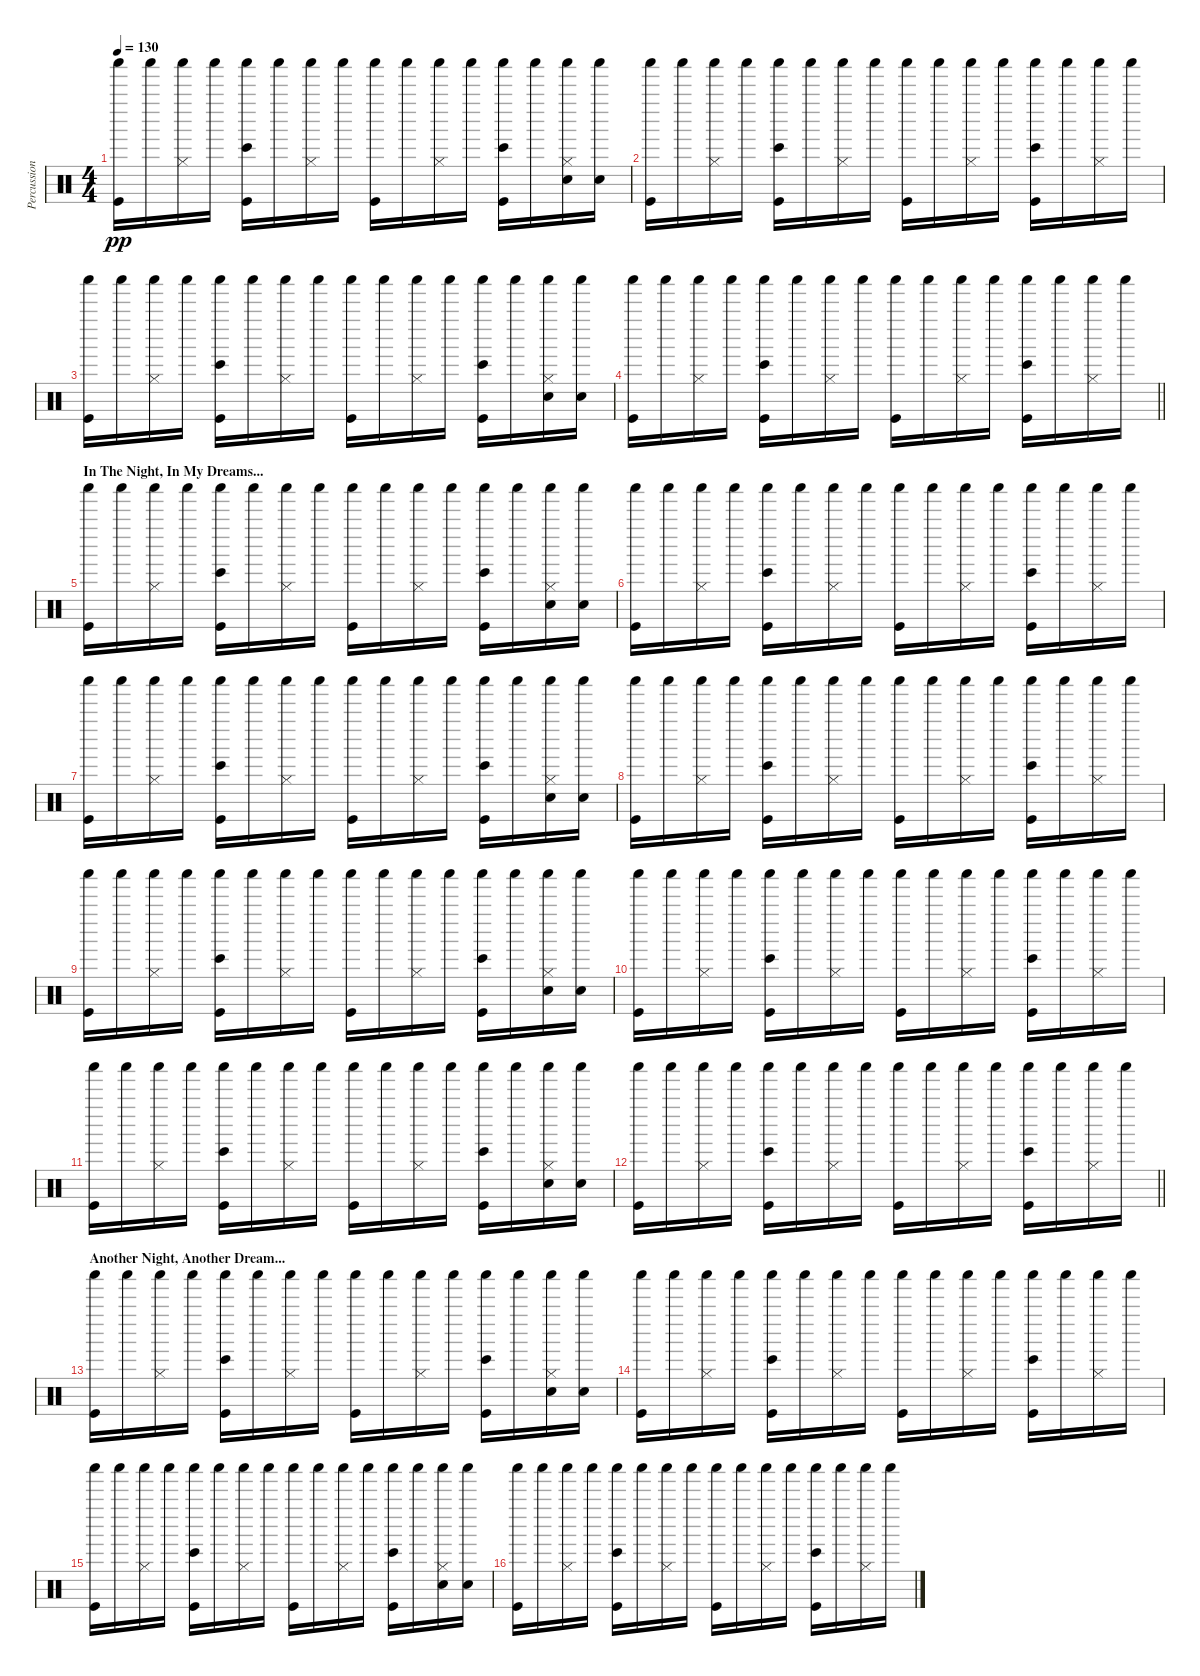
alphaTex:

\track ("Percussion" "Percussion") {instrument percussion}
\staff {score}
\articulation defaults
\ts (4 4)
\tempo 130
\clef neutral
\ks c
("Kick (hit)" "Shaker (hit)").16{dy pp} "Shaker (hit)".16 ("Hi-Hat (closed)" "Shaker (hit)").16 "Shaker (hit)".16 ("Kick (hit)" "Bongo High (hit)" "Shaker (hit)").16 "Shaker (hit)".16 ("Hi-Hat (closed)" "Shaker (hit)").16 "Shaker (hit)".16 ("Kick (hit)" "Shaker (hit)").16 "Shaker (hit)".16 ("Hi-Hat (closed)" "Shaker (hit)").16 "Shaker (hit)".16 ("Kick (hit)" "Bongo High (hit)" "Shaker (hit)").16 "Shaker (hit)".16 ("Electric Snare (hit)" "Hi-Hat (closed)" "Shaker (hit)").16 ("Electric Snare (hit)" "Shaker (hit)").16 |
("Kick (hit)" "Shaker (hit)").16 "Shaker (hit)".16 ("Hi-Hat (closed)" "Shaker (hit)").16 "Shaker (hit)".16 ("Kick (hit)" "Bongo High (hit)" "Shaker (hit)").16 "Shaker (hit)".16 ("Hi-Hat (closed)" "Shaker (hit)").16 "Shaker (hit)".16 ("Kick (hit)" "Shaker (hit)").16 "Shaker (hit)".16 ("Hi-Hat (closed)" "Shaker (hit)").16 "Shaker (hit)".16 ("Kick (hit)" "Bongo High (hit)" "Shaker (hit)").16 "Shaker (hit)".16 ("Hi-Hat (closed)" "Shaker (hit)").16 "Shaker (hit)".16 |
("Kick (hit)" "Shaker (hit)").16 "Shaker (hit)".16 ("Hi-Hat (closed)" "Shaker (hit)").16 "Shaker (hit)".16 ("Kick (hit)" "Bongo High (hit)" "Shaker (hit)").16 "Shaker (hit)".16 ("Hi-Hat (closed)" "Shaker (hit)").16 "Shaker (hit)".16 ("Kick (hit)" "Shaker (hit)").16 "Shaker (hit)".16 ("Hi-Hat (closed)" "Shaker (hit)").16 "Shaker (hit)".16 ("Kick (hit)" "Bongo High (hit)" "Shaker (hit)").16 "Shaker (hit)".16 ("Electric Snare (hit)" "Hi-Hat (closed)" "Shaker (hit)").16 ("Electric Snare (hit)" "Shaker (hit)").16 |
\barLineRight lightlight
("Kick (hit)" "Shaker (hit)").16 "Shaker (hit)".16 ("Hi-Hat (closed)" "Shaker (hit)").16 "Shaker (hit)".16 ("Kick (hit)" "Bongo High (hit)" "Shaker (hit)").16 "Shaker (hit)".16 ("Hi-Hat (closed)" "Shaker (hit)").16 "Shaker (hit)".16 ("Kick (hit)" "Shaker (hit)").16 "Shaker (hit)".16 ("Hi-Hat (closed)" "Shaker (hit)").16 "Shaker (hit)".16 ("Kick (hit)" "Bongo High (hit)" "Shaker (hit)").16 "Shaker (hit)".16 ("Hi-Hat (closed)" "Shaker (hit)").16 "Shaker (hit)".16 |
\section ("" "In The Night, In My Dreams...")
("Kick (hit)" "Shaker (hit)").16 "Shaker (hit)".16 ("Hi-Hat (closed)" "Shaker (hit)").16 "Shaker (hit)".16 ("Kick (hit)" "Bongo High (hit)" "Shaker (hit)").16 "Shaker (hit)".16 ("Hi-Hat (closed)" "Shaker (hit)").16 "Shaker (hit)".16 ("Kick (hit)" "Shaker (hit)").16 "Shaker (hit)".16 ("Hi-Hat (closed)" "Shaker (hit)").16 "Shaker (hit)".16 ("Kick (hit)" "Bongo High (hit)" "Shaker (hit)").16 "Shaker (hit)".16 ("Electric Snare (hit)" "Hi-Hat (closed)" "Shaker (hit)").16 ("Electric Snare (hit)" "Shaker (hit)").16 |
("Kick (hit)" "Shaker (hit)").16 "Shaker (hit)".16 ("Hi-Hat (closed)" "Shaker (hit)").16 "Shaker (hit)".16 ("Kick (hit)" "Bongo High (hit)" "Shaker (hit)").16 "Shaker (hit)".16 ("Hi-Hat (closed)" "Shaker (hit)").16 "Shaker (hit)".16 ("Kick (hit)" "Shaker (hit)").16 "Shaker (hit)".16 ("Hi-Hat (closed)" "Shaker (hit)").16 "Shaker (hit)".16 ("Kick (hit)" "Bongo High (hit)" "Shaker (hit)").16 "Shaker (hit)".16 ("Hi-Hat (closed)" "Shaker (hit)").16 "Shaker (hit)".16 |
("Kick (hit)" "Shaker (hit)").16 "Shaker (hit)".16 ("Hi-Hat (closed)" "Shaker (hit)").16 "Shaker (hit)".16 ("Kick (hit)" "Bongo High (hit)" "Shaker (hit)").16 "Shaker (hit)".16 ("Hi-Hat (closed)" "Shaker (hit)").16 "Shaker (hit)".16 ("Kick (hit)" "Shaker (hit)").16 "Shaker (hit)".16 ("Hi-Hat (closed)" "Shaker (hit)").16 "Shaker (hit)".16 ("Kick (hit)" "Bongo High (hit)" "Shaker (hit)").16 "Shaker (hit)".16 ("Electric Snare (hit)" "Hi-Hat (closed)" "Shaker (hit)").16 ("Electric Snare (hit)" "Shaker (hit)").16 |
("Kick (hit)" "Shaker (hit)").16 "Shaker (hit)".16 ("Hi-Hat (closed)" "Shaker (hit)").16 "Shaker (hit)".16 ("Kick (hit)" "Bongo High (hit)" "Shaker (hit)").16 "Shaker (hit)".16 ("Hi-Hat (closed)" "Shaker (hit)").16 "Shaker (hit)".16 ("Kick (hit)" "Shaker (hit)").16 "Shaker (hit)".16 ("Hi-Hat (closed)" "Shaker (hit)").16 "Shaker (hit)".16 ("Kick (hit)" "Bongo High (hit)" "Shaker (hit)").16 "Shaker (hit)".16 ("Hi-Hat (closed)" "Shaker (hit)").16 "Shaker (hit)".16 |
("Kick (hit)" "Shaker (hit)").16 "Shaker (hit)".16 ("Hi-Hat (closed)" "Shaker (hit)").16 "Shaker (hit)".16 ("Kick (hit)" "Bongo High (hit)" "Shaker (hit)").16 "Shaker (hit)".16 ("Hi-Hat (closed)" "Shaker (hit)").16 "Shaker (hit)".16 ("Kick (hit)" "Shaker (hit)").16 "Shaker (hit)".16 ("Hi-Hat (closed)" "Shaker (hit)").16 "Shaker (hit)".16 ("Kick (hit)" "Bongo High (hit)" "Shaker (hit)").16 "Shaker (hit)".16 ("Electric Snare (hit)" "Hi-Hat (closed)" "Shaker (hit)").16 ("Electric Snare (hit)" "Shaker (hit)").16 |
("Kick (hit)" "Shaker (hit)").16 "Shaker (hit)".16 ("Hi-Hat (closed)" "Shaker (hit)").16 "Shaker (hit)".16 ("Kick (hit)" "Bongo High (hit)" "Shaker (hit)").16 "Shaker (hit)".16 ("Hi-Hat (closed)" "Shaker (hit)").16 "Shaker (hit)".16 ("Kick (hit)" "Shaker (hit)").16 "Shaker (hit)".16 ("Hi-Hat (closed)" "Shaker (hit)").16 "Shaker (hit)".16 ("Kick (hit)" "Bongo High (hit)" "Shaker (hit)").16 "Shaker (hit)".16 ("Hi-Hat (closed)" "Shaker (hit)").16 "Shaker (hit)".16 |
("Kick (hit)" "Shaker (hit)").16 "Shaker (hit)".16 ("Hi-Hat (closed)" "Shaker (hit)").16 "Shaker (hit)".16 ("Kick (hit)" "Bongo High (hit)" "Shaker (hit)").16 "Shaker (hit)".16 ("Hi-Hat (closed)" "Shaker (hit)").16 "Shaker (hit)".16 ("Kick (hit)" "Shaker (hit)").16 "Shaker (hit)".16 ("Hi-Hat (closed)" "Shaker (hit)").16 "Shaker (hit)".16 ("Kick (hit)" "Bongo High (hit)" "Shaker (hit)").16 "Shaker (hit)".16 ("Electric Snare (hit)" "Hi-Hat (closed)" "Shaker (hit)").16 ("Electric Snare (hit)" "Shaker (hit)").16 |
\barLineRight lightlight
("Kick (hit)" "Shaker (hit)").16 "Shaker (hit)".16 ("Hi-Hat (closed)" "Shaker (hit)").16 "Shaker (hit)".16 ("Kick (hit)" "Bongo High (hit)" "Shaker (hit)").16 "Shaker (hit)".16 ("Hi-Hat (closed)" "Shaker (hit)").16 "Shaker (hit)".16 ("Kick (hit)" "Shaker (hit)").16 "Shaker (hit)".16 ("Hi-Hat (closed)" "Shaker (hit)").16 "Shaker (hit)".16 ("Kick (hit)" "Bongo High (hit)" "Shaker (hit)").16 "Shaker (hit)".16 ("Hi-Hat (closed)" "Shaker (hit)").16 "Shaker (hit)".16 |
\section ("" "Another Night, Another Dream...")
("Kick (hit)" "Shaker (hit)").16 "Shaker (hit)".16 ("Hi-Hat (closed)" "Shaker (hit)").16 "Shaker (hit)".16 ("Kick (hit)" "Bongo High (hit)" "Shaker (hit)").16 "Shaker (hit)".16 ("Hi-Hat (closed)" "Shaker (hit)").16 "Shaker (hit)".16 ("Kick (hit)" "Shaker (hit)").16 "Shaker (hit)".16 ("Hi-Hat (closed)" "Shaker (hit)").16 "Shaker (hit)".16 ("Kick (hit)" "Bongo High (hit)" "Shaker (hit)").16 "Shaker (hit)".16 ("Electric Snare (hit)" "Hi-Hat (closed)" "Shaker (hit)").16 ("Electric Snare (hit)" "Shaker (hit)").16 |
("Kick (hit)" "Shaker (hit)").16 "Shaker (hit)".16 ("Hi-Hat (closed)" "Shaker (hit)").16 "Shaker (hit)".16 ("Kick (hit)" "Bongo High (hit)" "Shaker (hit)").16 "Shaker (hit)".16 ("Hi-Hat (closed)" "Shaker (hit)").16 "Shaker (hit)".16 ("Kick (hit)" "Shaker (hit)").16 "Shaker (hit)".16 ("Hi-Hat (closed)" "Shaker (hit)").16 "Shaker (hit)".16 ("Kick (hit)" "Bongo High (hit)" "Shaker (hit)").16 "Shaker (hit)".16 ("Hi-Hat (closed)" "Shaker (hit)").16 "Shaker (hit)".16 |
("Kick (hit)" "Shaker (hit)").16 "Shaker (hit)".16 ("Hi-Hat (closed)" "Shaker (hit)").16 "Shaker (hit)".16 ("Kick (hit)" "Bongo High (hit)" "Shaker (hit)").16 "Shaker (hit)".16 ("Hi-Hat (closed)" "Shaker (hit)").16 "Shaker (hit)".16 ("Kick (hit)" "Shaker (hit)").16 "Shaker (hit)".16 ("Hi-Hat (closed)" "Shaker (hit)").16 "Shaker (hit)".16 ("Kick (hit)" "Bongo High (hit)" "Shaker (hit)").16 "Shaker (hit)".16 ("Electric Snare (hit)" "Hi-Hat (closed)" "Shaker (hit)").16 ("Electric Snare (hit)" "Shaker (hit)").16 |
("Kick (hit)" "Shaker (hit)").16 "Shaker (hit)".16 ("Hi-Hat (closed)" "Shaker (hit)").16 "Shaker (hit)".16 ("Kick (hit)" "Bongo High (hit)" "Shaker (hit)").16 "Shaker (hit)".16 ("Hi-Hat (closed)" "Shaker (hit)").16 "Shaker (hit)".16 ("Kick (hit)" "Shaker (hit)").16 "Shaker (hit)".16 ("Hi-Hat (closed)" "Shaker (hit)").16 "Shaker (hit)".16 ("Kick (hit)" "Bongo High (hit)" "Shaker (hit)").16 "Shaker (hit)".16 ("Hi-Hat (closed)" "Shaker (hit)").16 "Shaker (hit)".16
